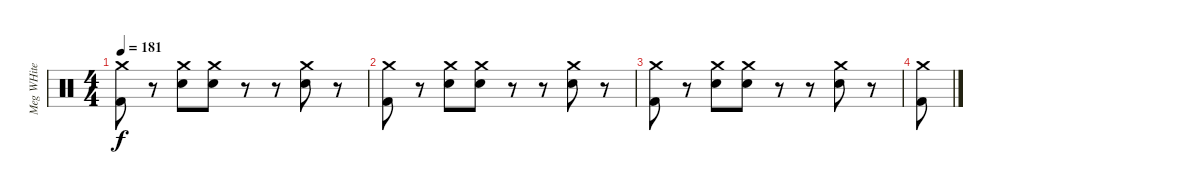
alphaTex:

\track ("Meg WHite" "Meg WHite") {instrument percussion}
\staff {score}
\articulation defaults
\ts (4 4)
\tempo 181
\clef neutral
\ks c
("Crash medium (hit)" "Kick (hit) 2").8{dy f} r.8 ("Crash medium (hit)" "Electric Snare (hit)").8 ("Crash medium (hit)" "Electric Snare (hit)").8 r.8 r.8 ("Crash medium (hit)" "Electric Snare (hit)").8 r.8 |
("Crash medium (hit)" "Kick (hit) 2").8 r.8 ("Crash medium (hit)" "Electric Snare (hit)").8 ("Crash medium (hit)" "Electric Snare (hit)").8 r.8 r.8 ("Crash medium (hit)" "Electric Snare (hit)").8 r.8 |
("Crash medium (hit)" "Kick (hit) 2").8 r.8 ("Crash medium (hit)" "Electric Snare (hit)").8 ("Crash medium (hit)" "Electric Snare (hit)").8 r.8 r.8 ("Crash medium (hit)" "Electric Snare (hit)").8 r.8 |
("Crash medium (hit)" "Kick (hit) 2").8
